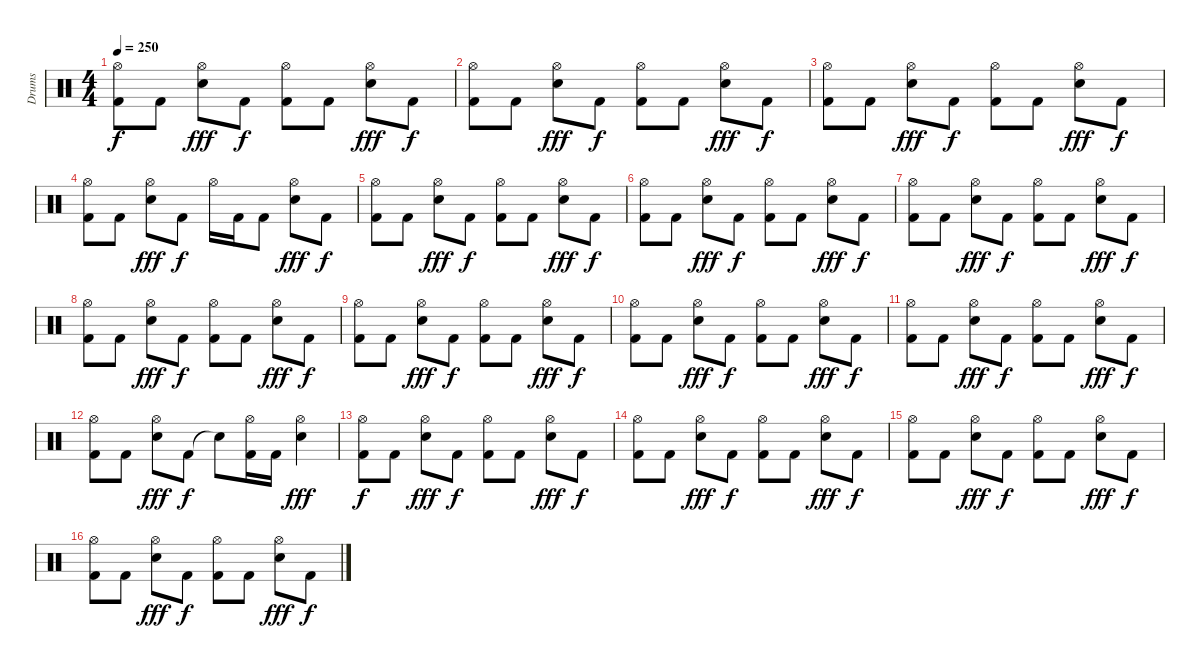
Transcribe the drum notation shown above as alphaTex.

\track ("Drums" "Drums") {instrument percussion}
\staff {score}
\articulation defaults
\ts (4 4)
\tempo 250
\clef neutral
\ks c
("Kick (hit) 2" "Hi-Hat (open)").8{dy f} "Kick (hit) 2".8 ("Hi-Hat (open)" "Snare (hit) 2").8{dy fff} "Kick (hit) 2".8{dy f} ("Hi-Hat (open)" "Kick (hit) 2").8 "Kick (hit) 2".8 ("Hi-Hat (open)" "Snare (hit) 2").8{dy fff} "Kick (hit) 2".8{dy f} |
("Kick (hit) 2" "Hi-Hat (open)").8 "Kick (hit) 2".8 ("Hi-Hat (open)" "Snare (hit) 2").8{dy fff} "Kick (hit) 2".8{dy f} ("Hi-Hat (open)" "Kick (hit) 2").8 "Kick (hit) 2".8 ("Hi-Hat (open)" "Snare (hit) 2").8{dy fff} "Kick (hit) 2".8{dy f} |
("Hi-Hat (open)" "Kick (hit) 2").8 "Kick (hit) 2".8 ("Hi-Hat (open)" "Snare (hit) 2").8{dy fff} "Kick (hit) 2".8{dy f} ("Hi-Hat (open)" "Kick (hit) 2").8 "Kick (hit) 2".8 ("Hi-Hat (open)" "Snare (hit) 2").8{dy fff} "Kick (hit) 2".8{dy f} |
("Hi-Hat (open)" "Kick (hit) 2").8 "Kick (hit) 2".8 ("Hi-Hat (open)" "Snare (hit) 2").8{dy fff} "Kick (hit) 2".8{dy f} "Hi-Hat (open)".16 "Kick (hit) 2".16 "Kick (hit) 2".8 ("Hi-Hat (open)" "Snare (hit) 2").8{dy fff} "Kick (hit) 2".8{dy f} |
("Kick (hit) 2" "Hi-Hat (open)").8 "Kick (hit) 2".8 ("Hi-Hat (open)" "Snare (hit) 2").8{dy fff} "Kick (hit) 2".8{dy f} ("Hi-Hat (open)" "Kick (hit) 2").8 "Kick (hit) 2".8 ("Hi-Hat (open)" "Snare (hit) 2").8{dy fff} "Kick (hit) 2".8{dy f} |
("Kick (hit) 2" "Hi-Hat (open)").8 "Kick (hit) 2".8 ("Hi-Hat (open)" "Snare (hit) 2").8{dy fff} "Kick (hit) 2".8{dy f} ("Hi-Hat (open)" "Kick (hit) 2").8 "Kick (hit) 2".8 ("Hi-Hat (open)" "Snare (hit) 2").8{dy fff} "Kick (hit) 2".8{dy f} |
("Kick (hit) 2" "Hi-Hat (open)").8 "Kick (hit) 2".8 ("Hi-Hat (open)" "Snare (hit) 2").8{dy fff} "Kick (hit) 2".8{dy f} ("Hi-Hat (open)" "Kick (hit) 2").8 "Kick (hit) 2".8 ("Hi-Hat (open)" "Snare (hit) 2").8{dy fff} "Kick (hit) 2".8{dy f} |
("Kick (hit) 2" "Hi-Hat (open)").8 "Kick (hit) 2".8 ("Hi-Hat (open)" "Snare (hit) 2").8{dy fff} "Kick (hit) 2".8{dy f} ("Hi-Hat (open)" "Kick (hit) 2").8 "Kick (hit) 2".8 ("Hi-Hat (open)" "Snare (hit) 2").8{dy fff} "Kick (hit) 2".8{dy f} |
("Kick (hit) 2" "Hi-Hat (open)").8 "Kick (hit) 2".8 ("Hi-Hat (open)" "Snare (hit) 2").8{dy fff} "Kick (hit) 2".8{dy f} ("Hi-Hat (open)" "Kick (hit) 2").8 "Kick (hit) 2".8 ("Hi-Hat (open)" "Snare (hit) 2").8{dy fff} "Kick (hit) 2".8{dy f} |
("Kick (hit) 2" "Hi-Hat (open)").8 "Kick (hit) 2".8 ("Hi-Hat (open)" "Snare (hit) 2").8{dy fff} "Kick (hit) 2".8{dy f} ("Hi-Hat (open)" "Kick (hit) 2").8 "Kick (hit) 2".8 ("Hi-Hat (open)" "Snare (hit) 2").8{dy fff} "Kick (hit) 2".8{dy f} |
("Kick (hit) 2" "Hi-Hat (open)").8 "Kick (hit) 2".8 ("Hi-Hat (open)" "Snare (hit) 2").8{dy fff} "Kick (hit) 2".8{dy f} ("Hi-Hat (open)" "Kick (hit) 2").8 "Kick (hit) 2".8 ("Hi-Hat (open)" "Snare (hit) 2").8{dy fff} "Kick (hit) 2".8{dy f} |
("Hi-Hat (open)" "Kick (hit) 2").8 "Kick (hit) 2".8 ("Hi-Hat (open)" "Snare (hit) 2").8{dy fff} "Kick (hit) 2".8{dy f} "Snare (hit)"{t}.8 ("Kick (hit) 2" "Hi-Hat (open)").16 "Kick (hit) 2".16 ("Hi-Hat (open)" "Snare (hit) 2").4{dy fff} |
("Kick (hit) 2" "Hi-Hat (open)").8{dy f} "Kick (hit) 2".8 ("Hi-Hat (open)" "Snare (hit) 2").8{dy fff} "Kick (hit) 2".8{dy f} ("Hi-Hat (open)" "Kick (hit) 2").8 "Kick (hit) 2".8 ("Hi-Hat (open)" "Snare (hit) 2").8{dy fff} "Kick (hit) 2".8{dy f} |
("Kick (hit) 2" "Hi-Hat (open)").8 "Kick (hit) 2".8 ("Hi-Hat (open)" "Snare (hit) 2").8{dy fff} "Kick (hit) 2".8{dy f} ("Hi-Hat (open)" "Kick (hit) 2").8 "Kick (hit) 2".8 ("Hi-Hat (open)" "Snare (hit) 2").8{dy fff} "Kick (hit) 2".8{dy f} |
("Kick (hit) 2" "Hi-Hat (open)").8 "Kick (hit) 2".8 ("Hi-Hat (open)" "Snare (hit) 2").8{dy fff} "Kick (hit) 2".8{dy f} ("Hi-Hat (open)" "Kick (hit) 2").8 "Kick (hit) 2".8 ("Hi-Hat (open)" "Snare (hit) 2").8{dy fff} "Kick (hit) 2".8{dy f} |
("Kick (hit) 2" "Hi-Hat (open)").8 "Kick (hit) 2".8 ("Hi-Hat (open)" "Snare (hit) 2").8{dy fff} "Kick (hit) 2".8{dy f} ("Hi-Hat (open)" "Kick (hit) 2").8 "Kick (hit) 2".8 ("Hi-Hat (open)" "Snare (hit) 2").8{dy fff} "Kick (hit) 2".8{dy f}
